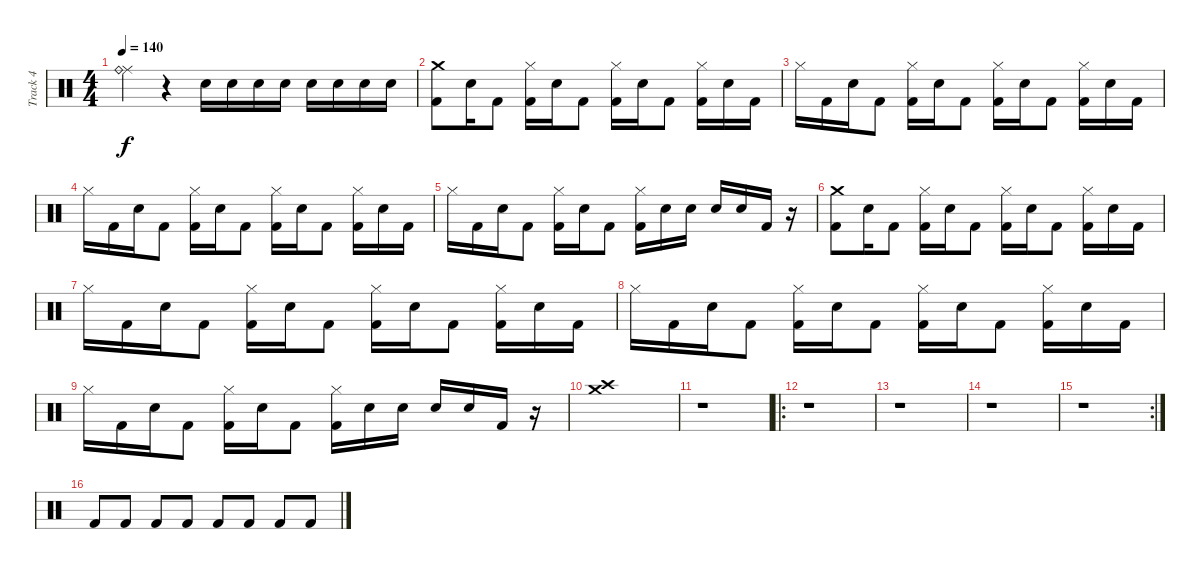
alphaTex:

\track ("Track 4" "Track 4") {instrument percussion}
\staff {score}
\articulation defaults
\ts (4 4)
\tempo 140
\clef neutral
\ks c
("Ride (middle)" "Ride (bell)").4{dy f} r.4 "Snare (hit) 2".16 "Snare (hit) 2".16 "Snare (hit) 2".16 "Snare (hit) 2".16 "Snare (hit) 2".16 "Snare (hit) 2".16 "Snare (hit) 2".16 "Snare (hit) 2".16 |
("Crash medium (hit)" "Kick (hit) 2").8 "Snare (hit) 2".16 "Kick (hit) 2".8 ("Hi-Hat (closed)" "Kick (hit) 2").16 "Snare (hit) 2".16 "Kick (hit) 2".8 ("Hi-Hat (closed)" "Kick (hit) 2").16 "Snare (hit) 2".16 "Kick (hit) 2".8 ("Hi-Hat (closed)" "Kick (hit) 2").16 "Snare (hit) 2".16 "Kick (hit) 2".16 |
"Hi-Hat (closed)".16 "Kick (hit) 2".16 "Snare (hit) 2".16 "Kick (hit) 2".8 ("Hi-Hat (closed)" "Kick (hit) 2").16 "Snare (hit) 2".16 "Kick (hit) 2".8 ("Hi-Hat (closed)" "Kick (hit) 2").16 "Snare (hit) 2".16 "Kick (hit) 2".8 ("Hi-Hat (closed)" "Kick (hit) 2").16 "Snare (hit) 2".16 "Kick (hit) 2".16 |
"Hi-Hat (closed)".16 "Kick (hit) 2".16 "Snare (hit) 2".16 "Kick (hit) 2".8 ("Hi-Hat (closed)" "Kick (hit) 2").16 "Snare (hit) 2".16 "Kick (hit) 2".8 ("Hi-Hat (closed)" "Kick (hit) 2").16 "Snare (hit) 2".16 "Kick (hit) 2".8 ("Hi-Hat (closed)" "Kick (hit) 2").16 "Snare (hit) 2".16 "Kick (hit) 2".16 |
"Hi-Hat (closed)".16 "Kick (hit) 2".16 "Snare (hit) 2".16 "Kick (hit) 2".8 ("Hi-Hat (closed)" "Kick (hit) 2").16 "Snare (hit) 2".16 "Kick (hit) 2".8 ("Hi-Hat (closed)" "Kick (hit) 2").16 "Snare (hit) 2".16 "Snare (hit) 2".16 "Snare (hit) 2".16 "Snare (hit) 2".16 "Kick (hit) 2".16 r.16 |
("Crash medium (hit)" "Kick (hit) 2").8 "Snare (hit) 2".16 "Kick (hit) 2".8 ("Hi-Hat (closed)" "Kick (hit) 2").16 "Snare (hit) 2".16 "Kick (hit) 2".8 ("Hi-Hat (closed)" "Kick (hit) 2").16 "Snare (hit) 2".16 "Kick (hit) 2".8 ("Hi-Hat (closed)" "Kick (hit) 2").16 "Snare (hit) 2".16 "Kick (hit) 2".16 |
"Hi-Hat (closed)".16 "Kick (hit) 2".16 "Snare (hit) 2".16 "Kick (hit) 2".8 ("Hi-Hat (closed)" "Kick (hit) 2").16 "Snare (hit) 2".16 "Kick (hit) 2".8 ("Hi-Hat (closed)" "Kick (hit) 2").16 "Snare (hit) 2".16 "Kick (hit) 2".8 ("Hi-Hat (closed)" "Kick (hit) 2").16 "Snare (hit) 2".16 "Kick (hit) 2".16 |
"Hi-Hat (closed)".16 "Kick (hit) 2".16 "Snare (hit) 2".16 "Kick (hit) 2".8 ("Hi-Hat (closed)" "Kick (hit) 2").16 "Snare (hit) 2".16 "Kick (hit) 2".8 ("Hi-Hat (closed)" "Kick (hit) 2").16 "Snare (hit) 2".16 "Kick (hit) 2".8 ("Hi-Hat (closed)" "Kick (hit) 2").16 "Snare (hit) 2".16 "Kick (hit) 2".16 |
"Hi-Hat (closed)".16 "Kick (hit) 2".16 "Snare (hit) 2".16 "Kick (hit) 2".8 ("Hi-Hat (closed)" "Kick (hit) 2").16 "Snare (hit) 2".16 "Kick (hit) 2".8 ("Hi-Hat (closed)" "Kick (hit) 2").16 "Snare (hit) 2".16 "Snare (hit) 2".16 "Snare (hit) 2".16 "Snare (hit) 2".16 "Kick (hit) 2".16 r.16 |
("Crash medium (hit)" "Crash high (hit)").1 |
r.1 |
\ro
r.1 |
r.1 |
r.1 |
\rc 2
r.1 |
"Kick (hit) 2".8 "Kick (hit) 2".8 "Kick (hit) 2".8 "Kick (hit) 2".8 "Kick (hit) 2".8 "Kick (hit) 2".8 "Kick (hit) 2".8 "Kick (hit) 2".8
